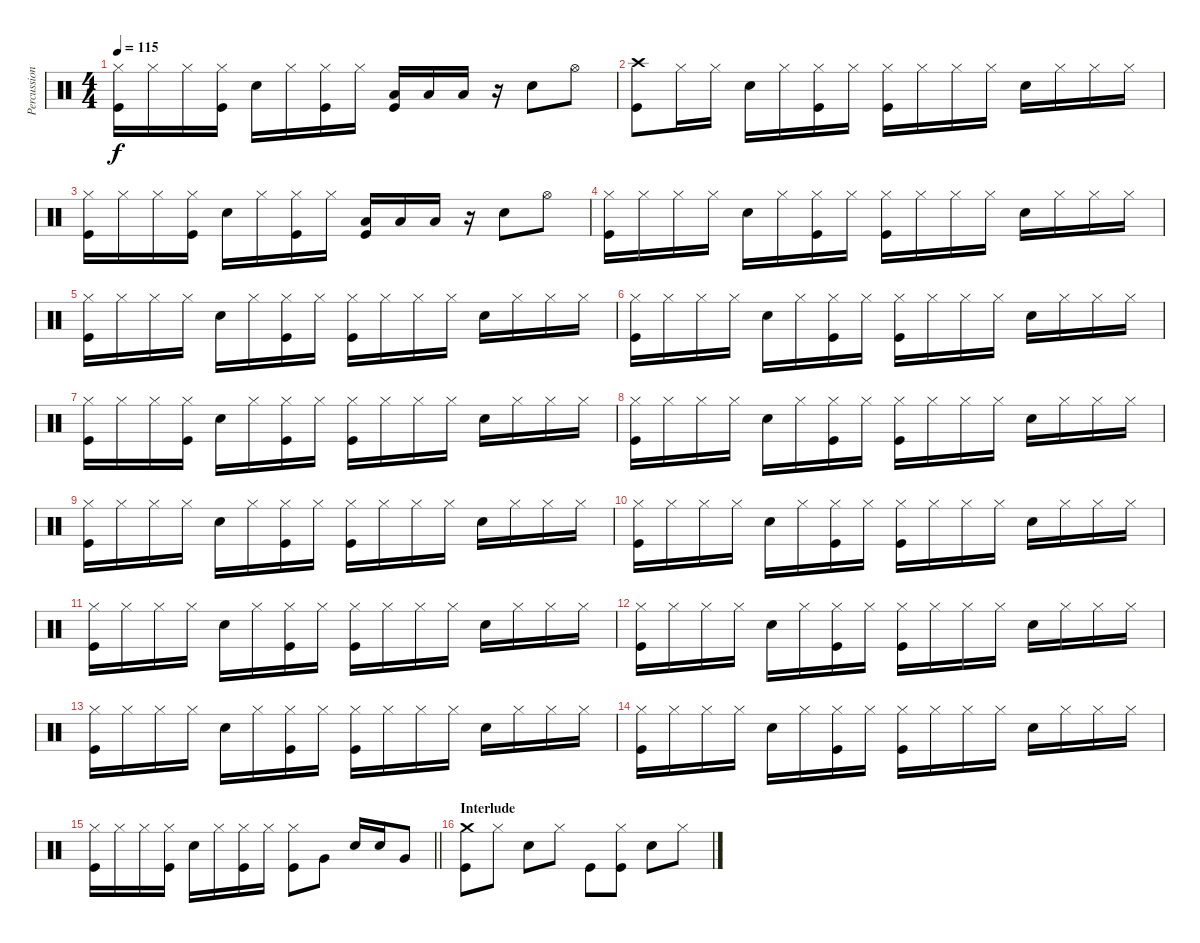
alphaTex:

\track ("Percussion" "Percussion") {instrument percussion}
\staff {score}
\articulation defaults
\ts (4 4)
\tempo 115
\clef neutral
\ks c
("Kick (hit)" "Hi-Hat (closed)").16{dy f} "Hi-Hat (closed)".16 "Hi-Hat (closed)".16 ("Kick (hit)" "Hi-Hat (closed)").16 "Snare (hit) 2".16 "Hi-Hat (closed)".16 ("Kick (hit)" "Hi-Hat (closed)").16 "Hi-Hat (closed)".16 ("Low Floor Tom (hit)" "Kick (hit)").16 "Low Floor Tom (hit)".16 "Low Floor Tom (hit)".16 r.16 "Snare (hit) 2".8 "Hi-Hat (open)".8 |
("Kick (hit)" "Crash high (hit)").8 "Hi-Hat (closed)".16 "Hi-Hat (closed)".16 "Snare (hit) 2".16 "Hi-Hat (closed)".16 ("Kick (hit)" "Hi-Hat (closed)").16 "Hi-Hat (closed)".16 ("Kick (hit)" "Hi-Hat (closed)").16 "Hi-Hat (closed)".16 "Hi-Hat (closed)".16 "Hi-Hat (closed)".16 "Snare (hit) 2".16 "Hi-Hat (closed)".16 "Hi-Hat (closed)".16 "Hi-Hat (closed)".16 |
("Kick (hit)" "Hi-Hat (closed)").16 "Hi-Hat (closed)".16 "Hi-Hat (closed)".16 ("Kick (hit)" "Hi-Hat (closed)").16 "Snare (hit) 2".16 "Hi-Hat (closed)".16 ("Kick (hit)" "Hi-Hat (closed)").16 "Hi-Hat (closed)".16 ("Low Floor Tom (hit)" "Kick (hit)").16 "Low Floor Tom (hit)".16 "Low Floor Tom (hit)".16 r.16 "Snare (hit) 2".8 "Hi-Hat (open)".8 |
("Kick (hit)" "Hi-Hat (closed)").16 "Hi-Hat (closed)".16 "Hi-Hat (closed)".16 "Hi-Hat (closed)".16 "Snare (hit) 2".16 "Hi-Hat (closed)".16 ("Kick (hit)" "Hi-Hat (closed)").16 "Hi-Hat (closed)".16 ("Kick (hit)" "Hi-Hat (closed)").16 "Hi-Hat (closed)".16 "Hi-Hat (closed)".16 "Hi-Hat (closed)".16 "Snare (hit) 2".16 "Hi-Hat (closed)".16 "Hi-Hat (closed)".16 "Hi-Hat (closed)".16 |
("Kick (hit)" "Hi-Hat (closed)").16 "Hi-Hat (closed)".16 "Hi-Hat (closed)".16 "Hi-Hat (closed)".16 "Snare (hit) 2".16 "Hi-Hat (closed)".16 ("Kick (hit)" "Hi-Hat (closed)").16 "Hi-Hat (closed)".16 ("Kick (hit)" "Hi-Hat (closed)").16 "Hi-Hat (closed)".16 "Hi-Hat (closed)".16 "Hi-Hat (closed)".16 "Snare (hit) 2".16 "Hi-Hat (closed)".16 "Hi-Hat (closed)".16 "Hi-Hat (closed)".16 |
("Kick (hit)" "Hi-Hat (closed)").16 "Hi-Hat (closed)".16 "Hi-Hat (closed)".16 "Hi-Hat (closed)".16 "Snare (hit) 2".16 "Hi-Hat (closed)".16 ("Kick (hit)" "Hi-Hat (closed)").16 "Hi-Hat (closed)".16 ("Kick (hit)" "Hi-Hat (closed)").16 "Hi-Hat (closed)".16 "Hi-Hat (closed)".16 "Hi-Hat (closed)".16 "Snare (hit) 2".16 "Hi-Hat (closed)".16 "Hi-Hat (closed)".16 "Hi-Hat (closed)".16 |
("Kick (hit)" "Hi-Hat (closed)").16 "Hi-Hat (closed)".16 "Hi-Hat (closed)".16 ("Kick (hit)" "Hi-Hat (closed)").16 "Snare (hit) 2".16 "Hi-Hat (closed)".16 ("Kick (hit)" "Hi-Hat (closed)").16 "Hi-Hat (closed)".16 ("Kick (hit)" "Hi-Hat (closed)").16 "Hi-Hat (closed)".16 "Hi-Hat (closed)".16 "Hi-Hat (closed)".16 "Snare (hit) 2".16 "Hi-Hat (closed)".16 "Hi-Hat (closed)".16 "Hi-Hat (closed)".16 |
("Kick (hit)" "Hi-Hat (closed)").16 "Hi-Hat (closed)".16 "Hi-Hat (closed)".16 "Hi-Hat (closed)".16 "Snare (hit) 2".16 "Hi-Hat (closed)".16 ("Kick (hit)" "Hi-Hat (closed)").16 "Hi-Hat (closed)".16 ("Kick (hit)" "Hi-Hat (closed)").16 "Hi-Hat (closed)".16 "Hi-Hat (closed)".16 "Hi-Hat (closed)".16 "Snare (hit) 2".16 "Hi-Hat (closed)".16 "Hi-Hat (closed)".16 "Hi-Hat (closed)".16 |
("Kick (hit)" "Hi-Hat (closed)").16 "Hi-Hat (closed)".16 "Hi-Hat (closed)".16 "Hi-Hat (closed)".16 "Snare (hit) 2".16 "Hi-Hat (closed)".16 ("Kick (hit)" "Hi-Hat (closed)").16 "Hi-Hat (closed)".16 ("Kick (hit)" "Hi-Hat (closed)").16 "Hi-Hat (closed)".16 "Hi-Hat (closed)".16 "Hi-Hat (closed)".16 "Snare (hit) 2".16 "Hi-Hat (closed)".16 "Hi-Hat (closed)".16 "Hi-Hat (closed)".16 |
("Kick (hit)" "Hi-Hat (closed)").16 "Hi-Hat (closed)".16 "Hi-Hat (closed)".16 "Hi-Hat (closed)".16 "Snare (hit) 2".16 "Hi-Hat (closed)".16 ("Kick (hit)" "Hi-Hat (closed)").16 "Hi-Hat (closed)".16 ("Kick (hit)" "Hi-Hat (closed)").16 "Hi-Hat (closed)".16 "Hi-Hat (closed)".16 "Hi-Hat (closed)".16 "Snare (hit) 2".16 "Hi-Hat (closed)".16 "Hi-Hat (closed)".16 "Hi-Hat (closed)".16 |
("Kick (hit)" "Hi-Hat (closed)").16 "Hi-Hat (closed)".16 "Hi-Hat (closed)".16 "Hi-Hat (closed)".16 "Snare (hit) 2".16 "Hi-Hat (closed)".16 ("Kick (hit)" "Hi-Hat (closed)").16 "Hi-Hat (closed)".16 ("Kick (hit)" "Hi-Hat (closed)").16 "Hi-Hat (closed)".16 "Hi-Hat (closed)".16 "Hi-Hat (closed)".16 "Snare (hit) 2".16 "Hi-Hat (closed)".16 "Hi-Hat (closed)".16 "Hi-Hat (closed)".16 |
("Kick (hit)" "Hi-Hat (closed)").16 "Hi-Hat (closed)".16 "Hi-Hat (closed)".16 "Hi-Hat (closed)".16 "Snare (hit) 2".16 "Hi-Hat (closed)".16 ("Kick (hit)" "Hi-Hat (closed)").16 "Hi-Hat (closed)".16 ("Kick (hit)" "Hi-Hat (closed)").16 "Hi-Hat (closed)".16 "Hi-Hat (closed)".16 "Hi-Hat (closed)".16 "Snare (hit) 2".16 "Hi-Hat (closed)".16 "Hi-Hat (closed)".16 "Hi-Hat (closed)".16 |
("Kick (hit)" "Hi-Hat (closed)").16 "Hi-Hat (closed)".16 "Hi-Hat (closed)".16 "Hi-Hat (closed)".16 "Snare (hit) 2".16 "Hi-Hat (closed)".16 ("Kick (hit)" "Hi-Hat (closed)").16 "Hi-Hat (closed)".16 ("Kick (hit)" "Hi-Hat (closed)").16 "Hi-Hat (closed)".16 "Hi-Hat (closed)".16 "Hi-Hat (closed)".16 "Snare (hit) 2".16 "Hi-Hat (closed)".16 "Hi-Hat (closed)".16 "Hi-Hat (closed)".16 |
("Kick (hit)" "Hi-Hat (closed)").16 "Hi-Hat (closed)".16 "Hi-Hat (closed)".16 "Hi-Hat (closed)".16 "Snare (hit) 2".16 "Hi-Hat (closed)".16 ("Kick (hit)" "Hi-Hat (closed)").16 "Hi-Hat (closed)".16 ("Kick (hit)" "Hi-Hat (closed)").16 "Hi-Hat (closed)".16 "Hi-Hat (closed)".16 "Hi-Hat (closed)".16 "Snare (hit) 2".16 "Hi-Hat (closed)".16 "Hi-Hat (closed)".16 "Hi-Hat (closed)".16 |
\barLineRight lightlight
("Kick (hit)" "Hi-Hat (closed)").16 "Hi-Hat (closed)".16 "Hi-Hat (closed)".16 ("Kick (hit)" "Hi-Hat (closed)").16 "Snare (hit) 2".16 "Hi-Hat (closed)".16 ("Kick (hit)" "Hi-Hat (closed)").16 "Hi-Hat (closed)".16 ("Kick (hit)" "Hi-Hat (closed)").8 "Very Low Tom (hit)".8 "Snare (hit) 2".16 "Snare (hit) 2".16 "Very Low Tom (hit)".8 |
\section ("" "Interlude")
("Crash medium (hit)" "Kick (hit)").8 "Hi-Hat (closed)".8 "Snare (hit) 2".8 "Hi-Hat (closed)".8 "Kick (hit)".8 ("Kick (hit)" "Hi-Hat (closed)").8 "Snare (hit) 2".8 "Hi-Hat (closed)".8
